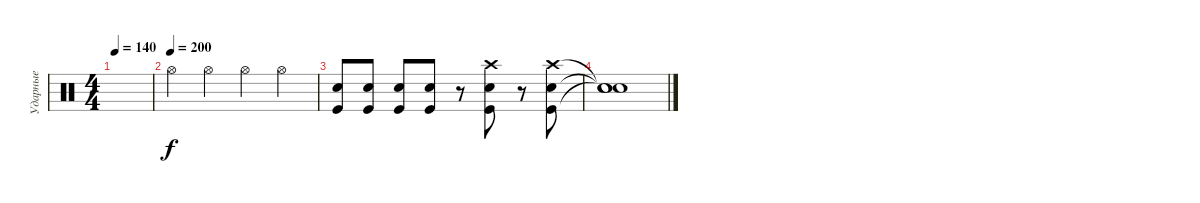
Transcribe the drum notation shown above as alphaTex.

\track ("Ударные" "Ударные") {instrument percussion}
\staff {score}
\articulation defaults
\ts (4 4)
\tempo 140
\clef neutral
\ks c
|
\tempo (200)
"Hi-Hat (open)".4 "Hi-Hat (open)".4 "Hi-Hat (open)".4 "Hi-Hat (open)".4 |
("Kick (hit)" "Snare (hit) 2").8 ("Kick (hit)" "Snare (hit) 2").8 ("Kick (hit)" "Snare (hit) 2").8 ("Kick (hit)" "Snare (hit) 2").8 r.8 ("Kick (hit)" "Snare (hit) 2" "Crash high (hit)").8 r.8 ("Kick (hit)" "Snare (hit) 2" "Crash high (hit)").8 |
("Snare (hit)"{t} "Snare (hit)"{t} "Snare (hit)"{t}).1{volume 1}
